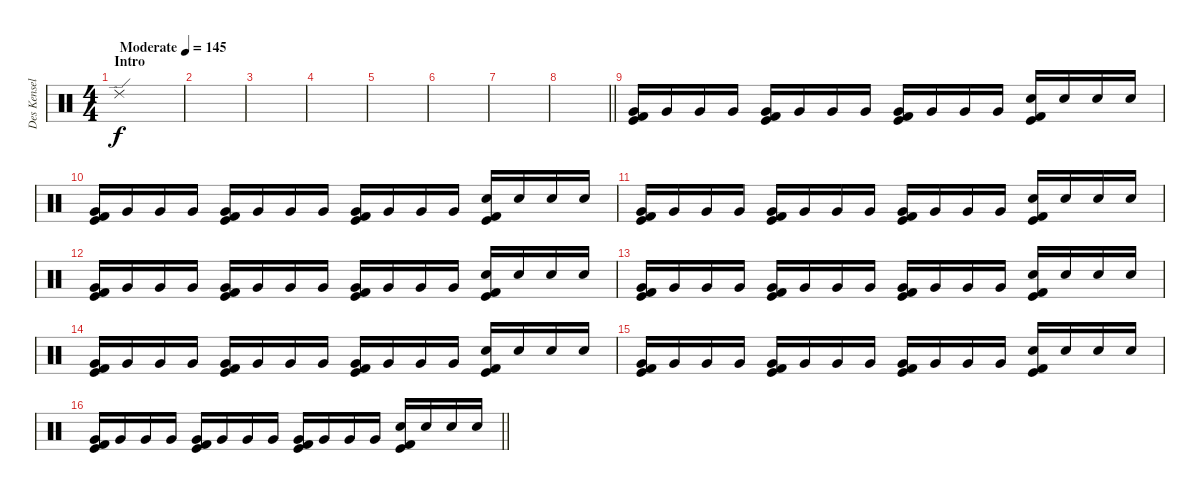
\track ("Des Kensel" "Des Kensel") {instrument percussion}
\staff {score}
\articulation defaults
\ts (4 4)
\section ("" "Intro")
\tempo (145 "Moderate")
\clef neutral
\ks c "Ride (edge) 2".1{dy f}
|
|
|
|
|
|
|
\barLineRight lightlight
|
\section ("" "")
("Very Low Tom (hit)" "Kick (hit)" "Kick (hit) 2").16 "Very Low Tom (hit)".16 "Very Low Tom (hit)".16 "Very Low Tom (hit)".16 ("Very Low Tom (hit)" "Kick (hit)" "Kick (hit) 2").16 "Very Low Tom (hit)".16 "Very Low Tom (hit)".16 "Very Low Tom (hit)".16 ("Very Low Tom (hit)" "Kick (hit)" "Kick (hit) 2").16 "Very Low Tom (hit)".16 "Very Low Tom (hit)".16 "Very Low Tom (hit)".16 ("Electric Snare (hit)" "Kick (hit)" "Kick (hit) 2").16 "Electric Snare (hit)".16 "Electric Snare (hit)".16 "Electric Snare (hit)".16 |
("Very Low Tom (hit)" "Kick (hit)" "Kick (hit) 2").16 "Very Low Tom (hit)".16 "Very Low Tom (hit)".16 "Very Low Tom (hit)".16 ("Very Low Tom (hit)" "Kick (hit)" "Kick (hit) 2").16 "Very Low Tom (hit)".16 "Very Low Tom (hit)".16 "Very Low Tom (hit)".16 ("Very Low Tom (hit)" "Kick (hit)" "Kick (hit) 2").16 "Very Low Tom (hit)".16 "Very Low Tom (hit)".16 "Very Low Tom (hit)".16 ("Electric Snare (hit)" "Kick (hit)" "Kick (hit) 2").16 "Electric Snare (hit)".16 "Electric Snare (hit)".16 "Electric Snare (hit)".16 |
("Very Low Tom (hit)" "Kick (hit)" "Kick (hit) 2").16 "Very Low Tom (hit)".16 "Very Low Tom (hit)".16 "Very Low Tom (hit)".16 ("Very Low Tom (hit)" "Kick (hit)" "Kick (hit) 2").16 "Very Low Tom (hit)".16 "Very Low Tom (hit)".16 "Very Low Tom (hit)".16 ("Very Low Tom (hit)" "Kick (hit)" "Kick (hit) 2").16 "Very Low Tom (hit)".16 "Very Low Tom (hit)".16 "Very Low Tom (hit)".16 ("Electric Snare (hit)" "Kick (hit)" "Kick (hit) 2").16 "Electric Snare (hit)".16 "Electric Snare (hit)".16 "Electric Snare (hit)".16 |
("Very Low Tom (hit)" "Kick (hit)" "Kick (hit) 2").16 "Very Low Tom (hit)".16 "Very Low Tom (hit)".16 "Very Low Tom (hit)".16 ("Very Low Tom (hit)" "Kick (hit)" "Kick (hit) 2").16 "Very Low Tom (hit)".16 "Very Low Tom (hit)".16 "Very Low Tom (hit)".16 ("Very Low Tom (hit)" "Kick (hit)" "Kick (hit) 2").16 "Very Low Tom (hit)".16 "Very Low Tom (hit)".16 "Very Low Tom (hit)".16 ("Electric Snare (hit)" "Kick (hit)" "Kick (hit) 2").16 "Electric Snare (hit)".16 "Electric Snare (hit)".16 "Electric Snare (hit)".16 |
("Very Low Tom (hit)" "Kick (hit)" "Kick (hit) 2").16 "Very Low Tom (hit)".16 "Very Low Tom (hit)".16 "Very Low Tom (hit)".16 ("Very Low Tom (hit)" "Kick (hit)" "Kick (hit) 2").16 "Very Low Tom (hit)".16 "Very Low Tom (hit)".16 "Very Low Tom (hit)".16 ("Very Low Tom (hit)" "Kick (hit)" "Kick (hit) 2").16 "Very Low Tom (hit)".16 "Very Low Tom (hit)".16 "Very Low Tom (hit)".16 ("Electric Snare (hit)" "Kick (hit)" "Kick (hit) 2").16 "Electric Snare (hit)".16 "Electric Snare (hit)".16 "Electric Snare (hit)".16 |
("Very Low Tom (hit)" "Kick (hit)" "Kick (hit) 2").16 "Very Low Tom (hit)".16 "Very Low Tom (hit)".16 "Very Low Tom (hit)".16 ("Very Low Tom (hit)" "Kick (hit)" "Kick (hit) 2").16 "Very Low Tom (hit)".16 "Very Low Tom (hit)".16 "Very Low Tom (hit)".16 ("Very Low Tom (hit)" "Kick (hit)" "Kick (hit) 2").16 "Very Low Tom (hit)".16 "Very Low Tom (hit)".16 "Very Low Tom (hit)".16 ("Electric Snare (hit)" "Kick (hit)" "Kick (hit) 2").16 "Electric Snare (hit)".16 "Electric Snare (hit)".16 "Electric Snare (hit)".16 |
("Very Low Tom (hit)" "Kick (hit)" "Kick (hit) 2").16 "Very Low Tom (hit)".16 "Very Low Tom (hit)".16 "Very Low Tom (hit)".16 ("Very Low Tom (hit)" "Kick (hit)" "Kick (hit) 2").16 "Very Low Tom (hit)".16 "Very Low Tom (hit)".16 "Very Low Tom (hit)".16 ("Very Low Tom (hit)" "Kick (hit)" "Kick (hit) 2").16 "Very Low Tom (hit)".16 "Very Low Tom (hit)".16 "Very Low Tom (hit)".16 ("Electric Snare (hit)" "Kick (hit)" "Kick (hit) 2").16 "Electric Snare (hit)".16 "Electric Snare (hit)".16 "Electric Snare (hit)".16 |
\barLineRight lightlight
("Very Low Tom (hit)" "Kick (hit)" "Kick (hit) 2").16 "Very Low Tom (hit)".16 "Very Low Tom (hit)".16 "Very Low Tom (hit)".16 ("Very Low Tom (hit)" "Kick (hit)" "Kick (hit) 2").16 "Very Low Tom (hit)".16 "Very Low Tom (hit)".16 "Very Low Tom (hit)".16 ("Very Low Tom (hit)" "Kick (hit)" "Kick (hit) 2").16 "Very Low Tom (hit)".16 "Very Low Tom (hit)".16 "Very Low Tom (hit)".16 ("Electric Snare (hit)" "Kick (hit)" "Kick (hit) 2").16 "Electric Snare (hit)".16 "Electric Snare (hit)".16 "Electric Snare (hit)".16
